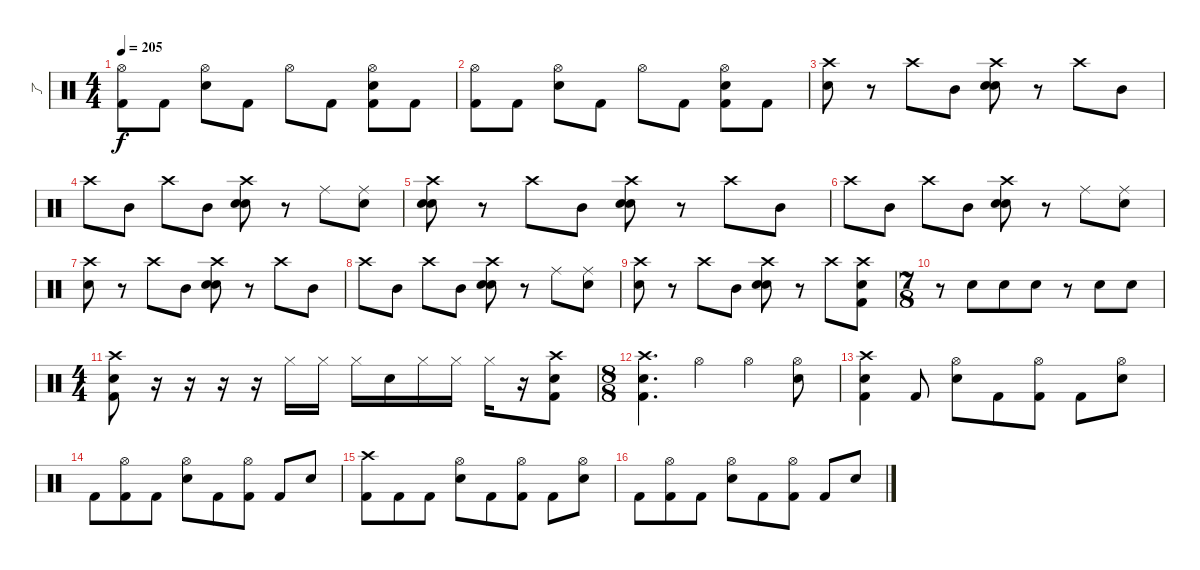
\track ("了" "了") {instrument percussion}
\staff {score}
\articulation defaults
\ts (4 4)
\tempo 205
\clef neutral
\ks c
("Hi-Hat (open)" "Kick (hit) 2").8{dy f} "Kick (hit) 2".8 ("Hi-Hat (open)" "Snare (hit) 2").8 "Kick (hit) 2".8 "Hi-Hat (open)".8 "Kick (hit) 2".8 ("Hi-Hat (open)" "Kick (hit) 2" "Snare (hit) 2").8 "Kick (hit) 2".8 |
("Hi-Hat (open)" "Kick (hit) 2").8 "Kick (hit) 2".8 ("Hi-Hat (open)" "Snare (hit) 2").8 "Kick (hit) 2".8 "Hi-Hat (open)".8 "Kick (hit) 2".8 ("Hi-Hat (open)" "Kick (hit) 2" "Snare (hit) 2").8 "Kick (hit) 2".8 |
("Crash high (hit)" "Snare (hit) 2").8 r.8 "Crash high (hit)".8 "Mid Tom (hit)".8 ("Crash high (hit)" "Snare (hit) 2" "Electric Snare (hit)").8 r.8 "Crash high (hit)".8 "Mid Tom (hit)".8 |
"Crash high (hit)".8 "Mid Tom (hit)".8 "Crash high (hit)".8 "Mid Tom (hit)".8 ("Crash high (hit)" "Snare (hit) 2" "Electric Snare (hit)").8 r.8 "Ride (middle)".8 ("Ride (middle)" "Snare (hit) 2").8 |
("Crash high (hit)" "Snare (hit) 2" "Electric Snare (hit)").8 r.8 "Crash high (hit)".8 "Mid Tom (hit)".8 ("Crash high (hit)" "Snare (hit) 2" "Electric Snare (hit)").8 r.8 "Crash high (hit)".8 "Mid Tom (hit)".8 |
"Crash high (hit)".8 "Mid Tom (hit)".8 "Crash high (hit)".8 "Mid Tom (hit)".8 ("Crash high (hit)" "Snare (hit) 2" "Electric Snare (hit)").8 r.8 "Ride (middle)".8 ("Ride (middle)" "Snare (hit) 2").8 |
("Crash high (hit)" "Snare (hit) 2").8 r.8 "Crash high (hit)".8 "Mid Tom (hit)".8 ("Crash high (hit)" "Snare (hit) 2" "Electric Snare (hit)").8 r.8 "Crash high (hit)".8 "Mid Tom (hit)".8 |
"Crash high (hit)".8 "Mid Tom (hit)".8 "Crash high (hit)".8 "Mid Tom (hit)".8 ("Crash high (hit)" "Snare (hit) 2" "Electric Snare (hit)").8 r.8 "Ride (middle)".8 ("Ride (middle)" "Snare (hit) 2").8 |
("Crash high (hit)" "Snare (hit) 2").8 r.8 "Crash high (hit)".8 "Mid Tom (hit)".8 ("Crash high (hit)" "Snare (hit) 2" "Electric Snare (hit)").8 r.8 "Crash high (hit)".8 ("Crash high (hit)" "Snare (hit) 2" "Kick (hit) 2").8 |
\ts (7 8)
r.8 "Snare (hit) 2".8 "Snare (hit) 2".8 "Snare (hit) 2".8 r.8 "Snare (hit) 2".8 "Snare (hit) 2".8 |
\ts (4 4)
("Snare (hit) 2" "Kick (hit) 2" "Crash high (hit)").8 r.16 r.16 r.16 r.16 "Hi-Hat (closed)".16 "Hi-Hat (closed)".16 "Hi-Hat (closed)".16 "Snare (hit)".16 "Hi-Hat (closed)".16 "Hi-Hat (closed)".16 "Hi-Hat (closed)".16 r.16 ("Crash high (hit)" "Kick (hit) 2" "Snare (hit) 2").8 |
\ts (8 8)
("Crash high (hit)" "Kick (hit) 2" "Snare (hit) 2").4{d} "Hi-Hat (open)".4 "Hi-Hat (open)".4 ("Snare (hit) 2" "Hi-Hat (open)").8 |
("Crash high (hit)" "Snare (hit) 2" "Kick (hit) 2").4 "Kick (hit) 2".8 ("Hi-Hat (open)" "Electric Snare (hit)").8 "Kick (hit) 2".8 ("Hi-Hat (open)" "Kick (hit) 2").8 "Kick (hit) 2".8 ("Hi-Hat (open)" "Electric Snare (hit)").8 |
"Kick (hit) 2".8 ("Hi-Hat (open)" "Kick (hit) 2").8 "Kick (hit) 2".8 ("Hi-Hat (open)" "Electric Snare (hit)").8 "Kick (hit) 2".8 ("Hi-Hat (open)" "Kick (hit) 2").8 "Kick (hit) 2".8 "Electric Snare (hit)".8 |
("Crash high (hit)" "Kick (hit) 2").8 "Kick (hit) 2".8 "Kick (hit) 2".8 ("Hi-Hat (open)" "Electric Snare (hit)").8 "Kick (hit) 2".8 ("Hi-Hat (open)" "Kick (hit) 2").8 "Kick (hit) 2".8 ("Hi-Hat (open)" "Electric Snare (hit)").8 |
"Kick (hit) 2".8 ("Hi-Hat (open)" "Kick (hit) 2").8 "Kick (hit) 2".8 ("Hi-Hat (open)" "Electric Snare (hit)").8 "Kick (hit) 2".8 ("Hi-Hat (open)" "Kick (hit) 2").8 "Kick (hit) 2".8 "Electric Snare (hit)".8
